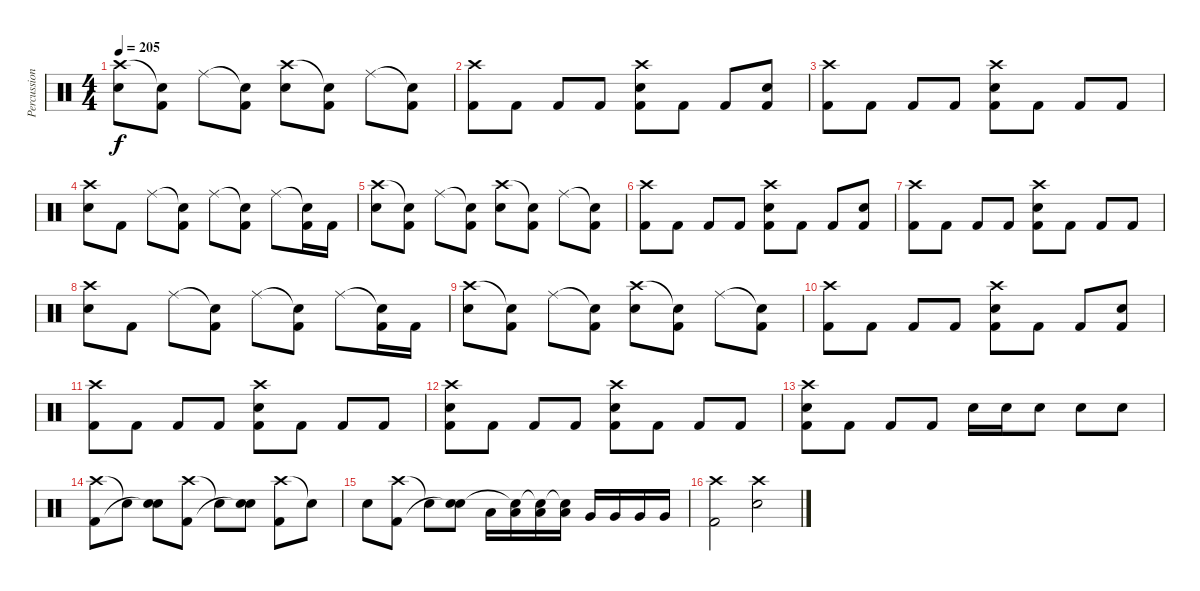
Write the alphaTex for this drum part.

\track ("Percussions" "Percussion") {instrument percussion}
\staff {score}
\articulation defaults
\ts (4 4)
\tempo 205
\clef neutral
\ks c
("Crash high (hit)" "Snare (hit) 2").8{dy f} ("Snare (hit)"{t} "Kick (hit) 2").8 "Ride (middle)".8 ("Snare (hit)"{t} "Kick (hit) 2").8 ("Crash high (hit)" "Snare (hit) 2").8 ("Snare (hit)"{t} "Kick (hit) 2").8 "Ride (middle)".8 ("Snare (hit)"{t} "Kick (hit) 2").8 |
("Crash high (hit)" "Kick (hit) 2").8 "Kick (hit) 2".8 "Kick (hit) 2".8 "Kick (hit) 2".8 ("Crash high (hit)" "Snare (hit) 2" "Kick (hit) 2").8 "Kick (hit) 2".8 "Kick (hit) 2".8 ("Snare (hit) 2" "Kick (hit) 2").8 |
("Crash high (hit)" "Kick (hit) 2").8 "Kick (hit) 2".8 "Kick (hit) 2".8 "Kick (hit) 2".8 ("Crash high (hit)" "Snare (hit) 2" "Kick (hit) 2").8 "Kick (hit) 2".8 "Kick (hit) 2".8 "Kick (hit) 2".8 |
("Crash high (hit)" "Snare (hit) 2").8 "Kick (hit) 2".8 "Ride (middle)".8 ("Snare (hit)"{t} "Kick (hit) 2").8 "Ride (middle)".8 ("Snare (hit)"{t} "Kick (hit) 2").8 "Ride (middle)".8 ("Snare (hit)"{t} "Kick (hit) 2").16 "Kick (hit) 2".16 |
("Crash high (hit)" "Snare (hit) 2").8 ("Snare (hit)"{t} "Kick (hit) 2").8 "Ride (middle)".8 ("Snare (hit)"{t} "Kick (hit) 2").8 ("Crash high (hit)" "Snare (hit) 2").8 ("Snare (hit)"{t} "Kick (hit) 2").8 "Ride (middle)".8 ("Snare (hit)"{t} "Kick (hit) 2").8 |
("Crash high (hit)" "Kick (hit) 2").8 "Kick (hit) 2".8 "Kick (hit) 2".8 "Kick (hit) 2".8 ("Crash high (hit)" "Snare (hit) 2" "Kick (hit) 2").8 "Kick (hit) 2".8 "Kick (hit) 2".8 ("Snare (hit) 2" "Kick (hit) 2").8 |
("Crash high (hit)" "Kick (hit) 2").8 "Kick (hit) 2".8 "Kick (hit) 2".8 "Kick (hit) 2".8 ("Crash high (hit)" "Snare (hit) 2" "Kick (hit) 2").8 "Kick (hit) 2".8 "Kick (hit) 2".8 "Kick (hit) 2".8 |
("Crash high (hit)" "Snare (hit) 2").8 "Kick (hit) 2".8 "Ride (middle)".8 ("Snare (hit)"{t} "Kick (hit) 2").8 "Ride (middle)".8 ("Snare (hit)"{t} "Kick (hit) 2").8 "Ride (middle)".8 ("Snare (hit)"{t} "Kick (hit) 2").16 "Kick (hit) 2".16 |
("Crash high (hit)" "Snare (hit) 2").8 ("Snare (hit)"{t} "Kick (hit) 2").8 "Ride (middle)".8 ("Snare (hit)"{t} "Kick (hit) 2").8 ("Crash high (hit)" "Snare (hit) 2").8 ("Snare (hit)"{t} "Kick (hit) 2").8 "Ride (middle)".8 ("Snare (hit)"{t} "Kick (hit) 2").8 |
("Crash high (hit)" "Kick (hit) 2").8 "Kick (hit) 2".8 "Kick (hit) 2".8 "Kick (hit) 2".8 ("Crash high (hit)" "Snare (hit) 2" "Kick (hit) 2").8 "Kick (hit) 2".8 "Kick (hit) 2".8 ("Snare (hit) 2" "Kick (hit) 2").8 |
("Crash high (hit)" "Kick (hit) 2").8 "Kick (hit) 2".8 "Kick (hit) 2".8 "Kick (hit) 2".8 ("Crash high (hit)" "Snare (hit) 2" "Kick (hit) 2").8 "Kick (hit) 2".8 "Kick (hit) 2".8 "Kick (hit) 2".8 |
("Crash high (hit)" "Snare (hit) 2" "Kick (hit) 2").8 "Kick (hit) 2".8 "Kick (hit) 2".8 "Kick (hit) 2".8 ("Crash high (hit)" "Snare (hit) 2" "Kick (hit) 2").8 "Kick (hit) 2".8 "Kick (hit) 2".8 "Kick (hit) 2".8 |
("Crash high (hit)" "Snare (hit) 2" "Kick (hit) 2").8 "Kick (hit) 2".8 "Kick (hit) 2".8 "Kick (hit) 2".8 "Snare (hit) 2".16 "Snare (hit) 2".16 "Snare (hit) 2".8 "Snare (hit) 2".8 "Snare (hit) 2".8 |
("Crash high (hit)" "Kick (hit) 2").8 "Snare (hit)"{t}.8 ("Snare (hit) 2" "Snare (hit)"{t}).8 ("Crash high (hit)" "Kick (hit) 2").8 "Snare (hit)"{t}.8 ("Snare (hit) 2" "Snare (hit)"{t}).8 ("Crash high (hit)" "Kick (hit) 2").8 "Snare (hit)"{t}.8 |
"Snare (hit) 2".8 ("Crash high (hit)" "Kick (hit) 2").8 "Snare (hit)"{t}.8 ("Snare (hit) 2" "Snare (hit)"{t}).8 "Low Tom (hit)".16 ("Low Tom (hit)" "Snare (hit)"{t}).16 ("Low Tom (hit)" "Snare (hit)"{t}).16 ("Low Tom (hit)" "Snare (hit)"{t}).16 "Very Low Tom (hit)".16 "Very Low Tom (hit)".16 "Very Low Tom (hit)".16 "Very Low Tom (hit)".16 |
("Crash high (hit)" "Kick (hit) 2").2 ("Crash high (hit)" "Snare (hit) 2").2
